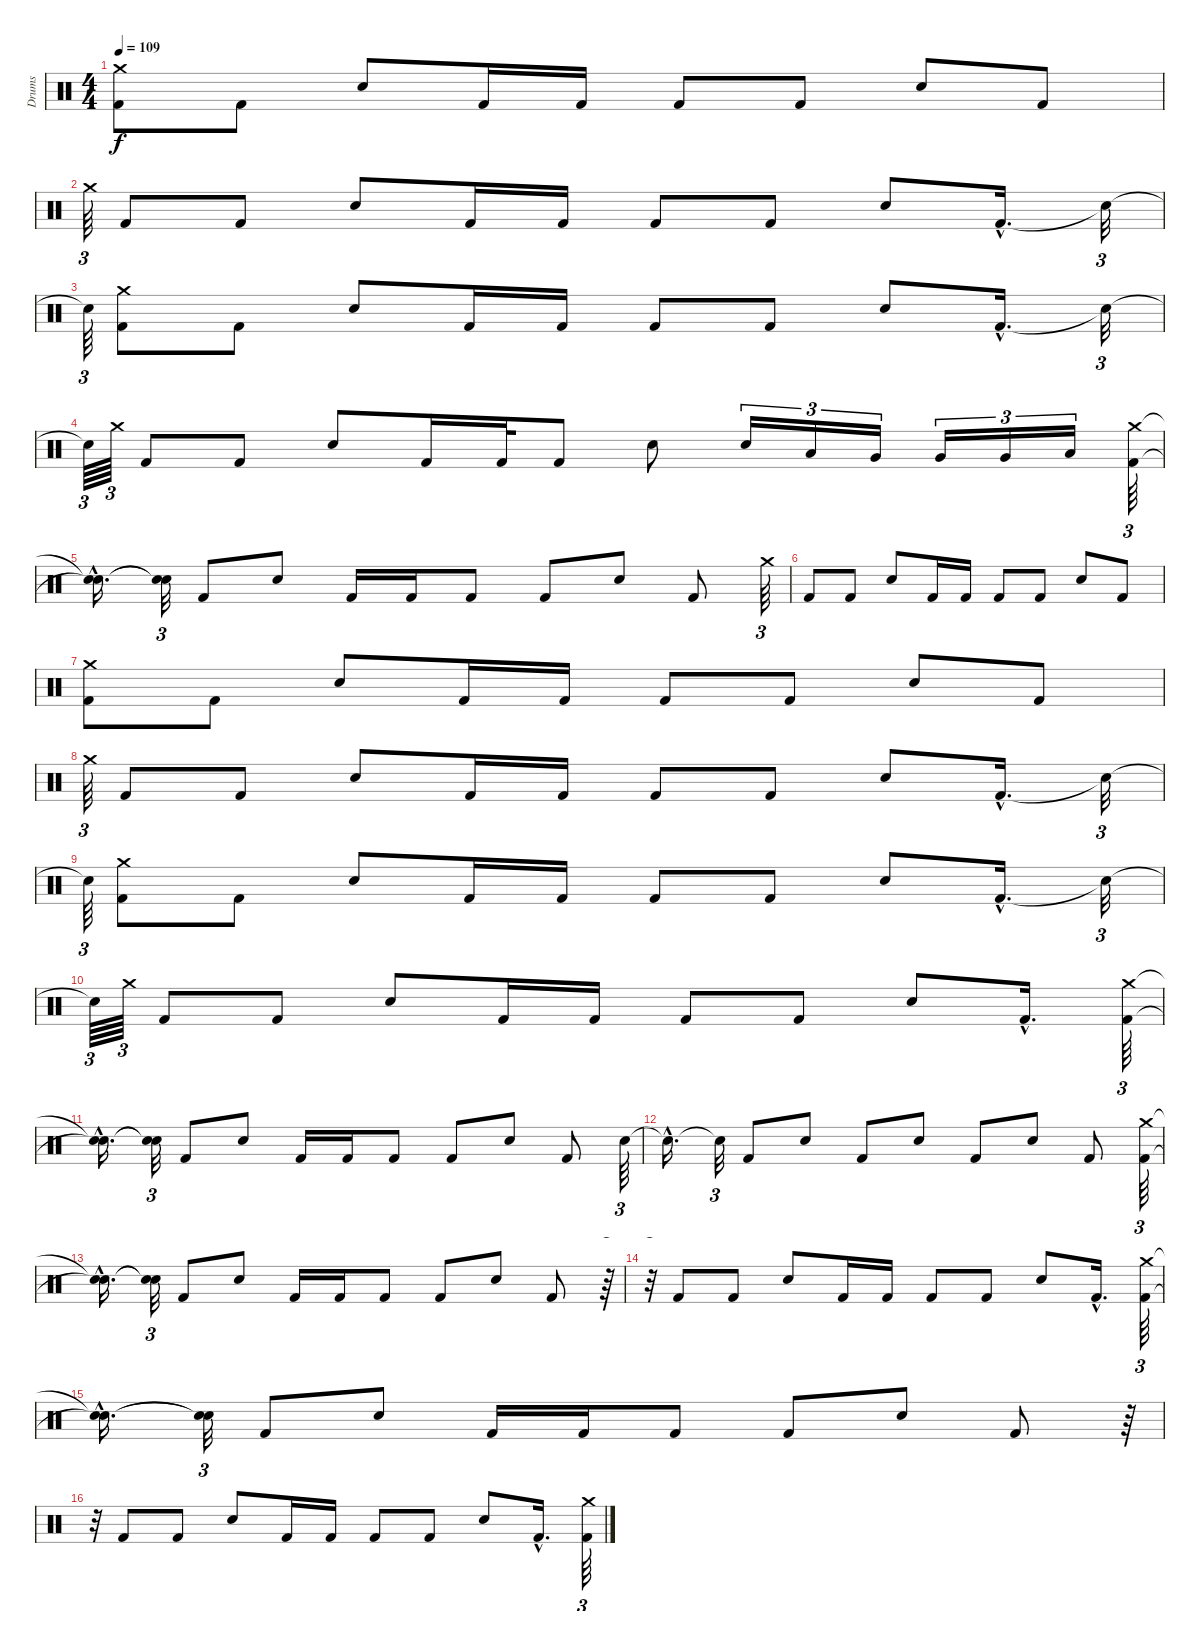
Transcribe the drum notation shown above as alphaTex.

\track ("Drums" "Drums") {instrument percussion}
\staff {score}
\articulation defaults
\ts (4 4)
\tempo 109
\clef neutral
\ks c
("Crash medium (hit)" "Kick (hit) 2").8{dy f} "Kick (hit) 2".8 "Snare (hit) 2".8 "Kick (hit) 2".16 "Kick (hit) 2".16 "Kick (hit) 2".8 "Kick (hit) 2".8 "Snare (hit) 2".8 "Kick (hit) 2".8 |
"Crash medium (hit)".64{tu (3 2)} "Kick (hit) 2".8 "Kick (hit) 2".8 "Snare (hit) 2".8 "Kick (hit) 2".16 "Kick (hit) 2".16 "Kick (hit) 2".8 "Kick (hit) 2".8 "Snare (hit) 2".8 "Kick (hit) 2"{hac}.16{d} "Snare (hit)"{t}.32{tu (3 2)} |
"Snare (hit)"{t}.64{tu (3 2)} ("Crash medium (hit)" "Kick (hit) 2").8 "Kick (hit) 2".8 "Snare (hit) 2".8 "Kick (hit) 2".16 "Kick (hit) 2".16 "Kick (hit) 2".8 "Kick (hit) 2".8 "Snare (hit) 2".8 "Kick (hit) 2"{hac}.16{d} "Snare (hit)"{t}.32{tu (3 2)} |
"Snare (hit)"{t}.64{tu (3 2)} "Crash medium (hit)".64{tu (3 2)} "Kick (hit) 2".8 "Kick (hit) 2".8 "Snare (hit) 2".8 "Kick (hit) 2".16 "Kick (hit) 2".32 "Kick (hit) 2".8 "Snare (hit) 2".8 "Snare (hit) 2".16{tu (3 2)} "Low Tom (hit)".16{tu (3 2)} "Very Low Tom (hit)".16{tu (3 2)} "Very Low Tom (hit)".16{tu (3 2)} "Very Low Tom (hit)".16{tu (3 2)} "Low Floor Tom (hit)".16{tu (3 2)} ("Crash medium (hit)" "Kick (hit) 2").64{tu (3 2)} |
("Snare (hit)"{hac t} "Snare (hit)"{hac t}).16{d} ("Snare (hit)"{t} "Snare (hit)"{t}).32{tu (3 2)} "Kick (hit) 2".8 "Snare (hit) 2".8 "Kick (hit) 2".16 "Kick (hit) 2".16 "Kick (hit) 2".8 "Kick (hit) 2".8 "Snare (hit) 2".8 "Kick (hit) 2".8 "Crash medium (hit)".64{tu (3 2)} |
"Kick (hit) 2".8 "Kick (hit) 2".8 "Snare (hit) 2".8 "Kick (hit) 2".16 "Kick (hit) 2".16 "Kick (hit) 2".8 "Kick (hit) 2".8 "Snare (hit) 2".8 "Kick (hit) 2".8 |
("Crash medium (hit)" "Kick (hit) 2").8 "Kick (hit) 2".8 "Snare (hit) 2".8 "Kick (hit) 2".16 "Kick (hit) 2".16 "Kick (hit) 2".8 "Kick (hit) 2".8 "Snare (hit) 2".8 "Kick (hit) 2".8 |
"Crash medium (hit)".64{tu (3 2)} "Kick (hit) 2".8 "Kick (hit) 2".8 "Snare (hit) 2".8 "Kick (hit) 2".16 "Kick (hit) 2".16 "Kick (hit) 2".8 "Kick (hit) 2".8 "Snare (hit) 2".8 "Kick (hit) 2"{hac}.16{d} "Snare (hit)"{t}.32{tu (3 2)} |
"Snare (hit)"{t}.64{tu (3 2)} ("Crash medium (hit)" "Kick (hit) 2").8 "Kick (hit) 2".8 "Snare (hit) 2".8 "Kick (hit) 2".16 "Kick (hit) 2".16 "Kick (hit) 2".8 "Kick (hit) 2".8 "Snare (hit) 2".8 "Kick (hit) 2"{hac}.16{d} "Snare (hit)"{t}.32{tu (3 2)} |
"Snare (hit)"{t}.64{tu (3 2)} "Crash medium (hit)".64{tu (3 2)} "Kick (hit) 2".8 "Kick (hit) 2".8 "Snare (hit) 2".8 "Kick (hit) 2".16 "Kick (hit) 2".16 "Kick (hit) 2".8 "Kick (hit) 2".8 "Snare (hit) 2".8 "Kick (hit) 2"{hac}.16{d} ("Crash medium (hit)" "Kick (hit) 2").64{tu (3 2)} |
("Snare (hit)"{hac t} "Snare (hit)"{hac t}).16{d} ("Snare (hit)"{t} "Snare (hit)"{t}).32{tu (3 2)} "Kick (hit) 2".8 "Snare (hit) 2".8 "Kick (hit) 2".16 "Kick (hit) 2".16 "Kick (hit) 2".8 "Kick (hit) 2".8 "Snare (hit) 2".8 "Kick (hit) 2".8 "Snare (hit) 2".64{tu (3 2)} |
"Snare (hit)"{hac t}.16{d} "Snare (hit)"{t}.32{tu (3 2)} "Kick (hit) 2".8 "Snare (hit) 2".8 "Kick (hit) 2".8 "Snare (hit) 2".8 "Kick (hit) 2".8 "Snare (hit) 2".8 "Kick (hit) 2".8 ("Crash medium (hit)" "Kick (hit) 2").64{tu (3 2)} |
("Snare (hit)"{hac t} "Snare (hit)"{hac t}).16{d} ("Snare (hit)"{t} "Snare (hit)"{t}).32{tu (3 2)} "Kick (hit) 2".8 "Snare (hit) 2".8 "Kick (hit) 2".16 "Kick (hit) 2".16 "Kick (hit) 2".8 "Kick (hit) 2".8 "Snare (hit) 2".8 "Kick (hit) 2".8 r.64{tu (3 2)} |
r.32{tu (3 2)} "Kick (hit) 2".8 "Kick (hit) 2".8 "Snare (hit) 2".8 "Kick (hit) 2".16 "Kick (hit) 2".16 "Kick (hit) 2".8 "Kick (hit) 2".8 "Snare (hit) 2".8 "Kick (hit) 2"{hac}.16{d} ("Crash medium (hit)" "Kick (hit) 2").64{tu (3 2)} |
("Snare (hit)"{hac t} "Snare (hit)"{hac t}).16{d} ("Snare (hit)"{t} "Snare (hit)"{t}).32{tu (3 2)} "Kick (hit) 2".8 "Snare (hit) 2".8 "Kick (hit) 2".16 "Kick (hit) 2".16 "Kick (hit) 2".8 "Kick (hit) 2".8 "Snare (hit) 2".8 "Kick (hit) 2".8 r.64{tu (3 2)} |
r.32{tu (3 2)} "Kick (hit) 2".8 "Kick (hit) 2".8 "Snare (hit) 2".8 "Kick (hit) 2".16 "Kick (hit) 2".16 "Kick (hit) 2".8 "Kick (hit) 2".8 "Snare (hit) 2".8 "Kick (hit) 2"{hac}.16{d} ("Crash medium (hit)" "Kick (hit) 2").64{tu (3 2)}
